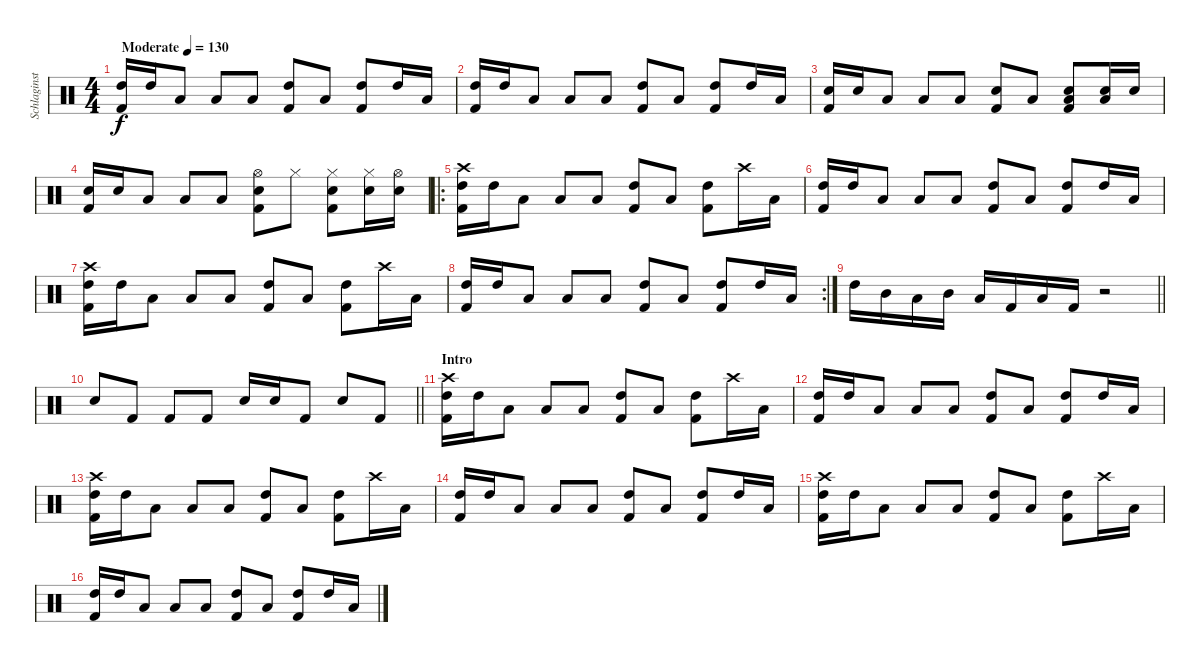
\track ("Schlaginstrumente - Auswahl" "Schlaginst") {instrument percussion}
\staff {score}
\articulation defaults
\ts (4 4)
\tempo (130 "Moderate")
\clef neutral
\ks c
("High Tom (hit)" "Kick (hit) 2").16{dy f} "High Tom (hit)".16 "Low Tom (hit)".8 "Low Tom (hit)".8 "Low Tom (hit)".8 ("High Tom (hit)" "Kick (hit) 2").8 "Low Tom (hit)".8 ("High Tom (hit)" "Kick (hit) 2").8 "High Tom (hit)".16 "Low Tom (hit)".16 |
("High Tom (hit)" "Kick (hit) 2").16 "High Tom (hit)".16 "Low Tom (hit)".8 "Low Tom (hit)".8 "Low Tom (hit)".8 ("High Tom (hit)" "Kick (hit) 2").8 "Low Tom (hit)".8 ("High Tom (hit)" "Kick (hit) 2").8 "High Tom (hit)".16 "Low Tom (hit)".16 |
("Snare (hit) 2" "Kick (hit) 2").16 "Snare (hit) 2".16 "Low Tom (hit)".8 "Low Tom (hit)".8 "Low Tom (hit)".8 ("Snare (hit) 2" "Kick (hit) 2").8 "Low Tom (hit)".8 ("Low Tom (hit)" "Snare (hit) 2" "Kick (hit) 2").8 ("Low Tom (hit)" "Snare (hit) 2").16 "Snare (hit) 2".16 |
("Snare (hit) 2" "Kick (hit) 2").16 "Snare (hit) 2".16 "Low Tom (hit)".8 "Low Tom (hit)".8 "Low Tom (hit)".8 ("Hi-Hat (open)" "Snare (hit) 2" "Kick (hit) 2").8 "Hi-Hat (closed)".8 ("Hi-Hat (closed)" "Snare (hit) 2" "Kick (hit) 2").8 ("Hi-Hat (closed)" "Snare (hit) 2").16 ("Hi-Hat (open)" "Snare (hit) 2").16 |
\ro
("Crash high (hit)" "High Tom (hit)" "Kick (hit) 2").16 "High Tom (hit)".16 "Low Tom (hit)".8 "Low Tom (hit)".8 "Low Tom (hit)".8 ("High Tom (hit)" "Kick (hit) 2").8 "Low Tom (hit)".8 ("High Tom (hit)" "Kick (hit) 2").8 "Crash high (hit)".16 "Low Tom (hit)".16 |
("High Tom (hit)" "Kick (hit) 2").16 "High Tom (hit)".16 "Low Tom (hit)".8 "Low Tom (hit)".8 "Low Tom (hit)".8 ("High Tom (hit)" "Kick (hit) 2").8 "Low Tom (hit)".8 ("High Tom (hit)" "Kick (hit) 2").8 "High Tom (hit)".16 "Low Tom (hit)".16 |
("Crash high (hit)" "High Tom (hit)" "Kick (hit) 2").16 "High Tom (hit)".16 "Low Tom (hit)".8 "Low Tom (hit)".8 "Low Tom (hit)".8 ("High Tom (hit)" "Kick (hit) 2").8 "Low Tom (hit)".8 ("High Tom (hit)" "Kick (hit) 2").8 "Crash high (hit)".16 "Low Tom (hit)".16 |
\rc 2
("High Tom (hit)" "Kick (hit) 2").16 "High Tom (hit)".16 "Low Tom (hit)".8 "Low Tom (hit)".8 "Low Tom (hit)".8 ("High Tom (hit)" "Kick (hit) 2").8 "Low Tom (hit)".8 ("High Tom (hit)" "Kick (hit) 2").8 "High Tom (hit)".16 "Low Tom (hit)".16 |
\barLineRight lightlight "High Tom (hit)".16 "Mid Tom (hit)".16 "Low Tom (hit)".16 "Mid Tom (hit)".16 "Low Tom (hit)".16 "Kick (hit) 2".16 "Low Tom (hit)".16 "Kick (hit) 2".16
r.2 |
\barLineRight lightlight "Snare (hit) 2".8 "Kick (hit) 2".8 "Kick (hit) 2".8 "Kick (hit) 2".8 "Snare (hit) 2".16 "Snare (hit) 2".16 "Kick (hit) 2".8 "Snare (hit) 2".8 "Kick (hit) 2".8
|
\section ("" "Intro")
("Crash high (hit)" "High Tom (hit)" "Kick (hit) 2").16 "High Tom (hit)".16 "Low Tom (hit)".8 "Low Tom (hit)".8 "Low Tom (hit)".8 ("High Tom (hit)" "Kick (hit) 2").8 "Low Tom (hit)".8 ("High Tom (hit)" "Kick (hit) 2").8 "Crash high (hit)".16 "Low Tom (hit)".16 |
("High Tom (hit)" "Kick (hit) 2").16 "High Tom (hit)".16 "Low Tom (hit)".8 "Low Tom (hit)".8 "Low Tom (hit)".8 ("High Tom (hit)" "Kick (hit) 2").8 "Low Tom (hit)".8 ("High Tom (hit)" "Kick (hit) 2").8 "High Tom (hit)".16 "Low Tom (hit)".16 |
("Crash high (hit)" "High Tom (hit)" "Kick (hit) 2").16 "High Tom (hit)".16 "Low Tom (hit)".8 "Low Tom (hit)".8 "Low Tom (hit)".8 ("High Tom (hit)" "Kick (hit) 2").8 "Low Tom (hit)".8 ("High Tom (hit)" "Kick (hit) 2").8 "Crash high (hit)".16 "Low Tom (hit)".16 |
("High Tom (hit)" "Kick (hit) 2").16 "High Tom (hit)".16 "Low Tom (hit)".8 "Low Tom (hit)".8 "Low Tom (hit)".8 ("High Tom (hit)" "Kick (hit) 2").8 "Low Tom (hit)".8 ("High Tom (hit)" "Kick (hit) 2").8 "High Tom (hit)".16 "Low Tom (hit)".16 |
("Crash high (hit)" "High Tom (hit)" "Kick (hit) 2").16 "High Tom (hit)".16 "Low Tom (hit)".8 "Low Tom (hit)".8 "Low Tom (hit)".8 ("High Tom (hit)" "Kick (hit) 2").8 "Low Tom (hit)".8 ("High Tom (hit)" "Kick (hit) 2").8 "Crash high (hit)".16 "Low Tom (hit)".16 |
("High Tom (hit)" "Kick (hit) 2").16 "High Tom (hit)".16 "Low Tom (hit)".8 "Low Tom (hit)".8 "Low Tom (hit)".8 ("High Tom (hit)" "Kick (hit) 2").8 "Low Tom (hit)".8 ("High Tom (hit)" "Kick (hit) 2").8 "High Tom (hit)".16 "Low Tom (hit)".16
